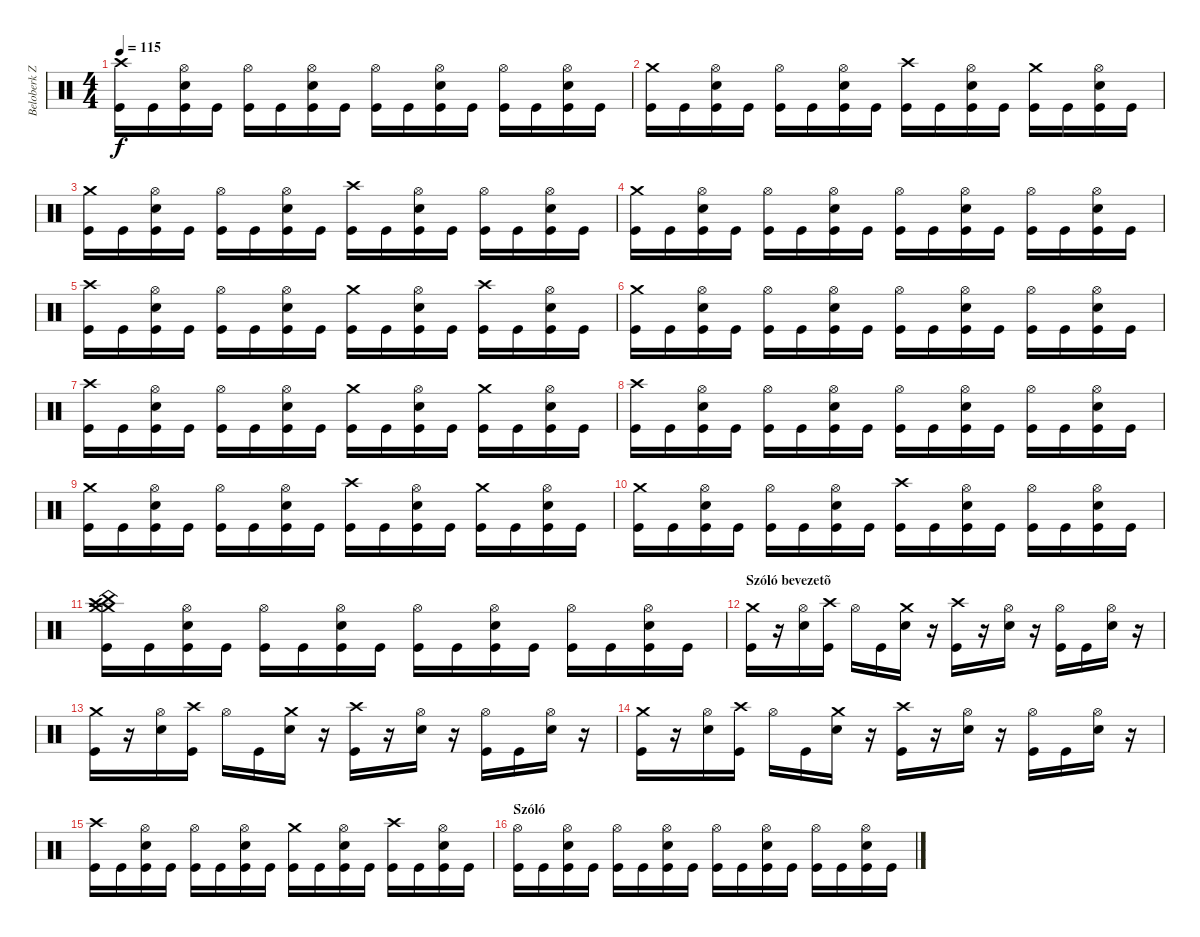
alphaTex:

\track ("Beloberk Zsolt /dob/" "Beloberk Z") {instrument percussion}
\staff {score}
\articulation defaults
\ts (4 4)
\tempo 115
\clef neutral
\ks c
("Crash high (hit)" "Kick (hit)").16{dy f} "Kick (hit)".16 ("Hi-Hat (open)" "Electric Snare (hit)" "Kick (hit)").16 "Kick (hit)".16 ("Hi-Hat (open)" "Kick (hit)").16 "Kick (hit)".16 ("Hi-Hat (open)" "Electric Snare (hit)" "Kick (hit)").16 "Kick (hit)".16 ("Hi-Hat (open)" "Kick (hit)").16 "Kick (hit)".16 ("Hi-Hat (open)" "Electric Snare (hit)" "Kick (hit)").16 "Kick (hit)".16 ("Hi-Hat (open)" "Kick (hit)").16 "Kick (hit)".16 ("Hi-Hat (open)" "Electric Snare (hit)" "Kick (hit)").16 "Kick (hit)".16 |
("Crash medium (hit)" "Kick (hit)").16 "Kick (hit)".16 ("Hi-Hat (open)" "Electric Snare (hit)" "Kick (hit)").16 "Kick (hit)".16 ("Hi-Hat (open)" "Kick (hit)").16 "Kick (hit)".16 ("Hi-Hat (open)" "Electric Snare (hit)" "Kick (hit)").16 "Kick (hit)".16 ("Crash high (hit)" "Kick (hit)").16 "Kick (hit)".16 ("Hi-Hat (open)" "Electric Snare (hit)" "Kick (hit)").16 "Kick (hit)".16 ("Crash medium (hit)" "Kick (hit)").16 "Kick (hit)".16 ("Hi-Hat (open)" "Electric Snare (hit)" "Kick (hit)").16 "Kick (hit)".16 |
("Crash medium (hit)" "Kick (hit)").16 "Kick (hit)".16 ("Hi-Hat (open)" "Electric Snare (hit)" "Kick (hit)").16 "Kick (hit)".16 ("Hi-Hat (open)" "Kick (hit)").16 "Kick (hit)".16 ("Hi-Hat (open)" "Electric Snare (hit)" "Kick (hit)").16 "Kick (hit)".16 ("Crash high (hit)" "Kick (hit)").16 "Kick (hit)".16 ("Hi-Hat (open)" "Electric Snare (hit)" "Kick (hit)").16 "Kick (hit)".16 ("Hi-Hat (open)" "Kick (hit)").16 "Kick (hit)".16 ("Hi-Hat (open)" "Electric Snare (hit)" "Kick (hit)").16 "Kick (hit)".16 |
("Crash medium (hit)" "Kick (hit)").16 "Kick (hit)".16 ("Hi-Hat (open)" "Electric Snare (hit)" "Kick (hit)").16 "Kick (hit)".16 ("Hi-Hat (open)" "Kick (hit)").16 "Kick (hit)".16 ("Hi-Hat (open)" "Electric Snare (hit)" "Kick (hit)").16 "Kick (hit)".16 ("Hi-Hat (open)" "Kick (hit)").16 "Kick (hit)".16 ("Hi-Hat (open)" "Electric Snare (hit)" "Kick (hit)").16 "Kick (hit)".16 ("Hi-Hat (open)" "Kick (hit)").16 "Kick (hit)".16 ("Hi-Hat (open)" "Electric Snare (hit)" "Kick (hit)").16 "Kick (hit)".16 |
("Crash high (hit)" "Kick (hit)").16 "Kick (hit)".16 ("Hi-Hat (open)" "Electric Snare (hit)" "Kick (hit)").16 "Kick (hit)".16 ("Hi-Hat (open)" "Kick (hit)").16 "Kick (hit)".16 ("Hi-Hat (open)" "Electric Snare (hit)" "Kick (hit)").16 "Kick (hit)".16 ("Crash medium (hit)" "Kick (hit)").16 "Kick (hit)".16 ("Hi-Hat (open)" "Electric Snare (hit)" "Kick (hit)").16 "Kick (hit)".16 ("Crash high (hit)" "Kick (hit)").16 "Kick (hit)".16 ("Hi-Hat (open)" "Electric Snare (hit)" "Kick (hit)").16 "Kick (hit)".16 |
("Crash medium (hit)" "Kick (hit)").16 "Kick (hit)".16 ("Hi-Hat (open)" "Electric Snare (hit)" "Kick (hit)").16 "Kick (hit)".16 ("Hi-Hat (open)" "Kick (hit)").16 "Kick (hit)".16 ("Hi-Hat (open)" "Electric Snare (hit)" "Kick (hit)").16 "Kick (hit)".16 ("Hi-Hat (open)" "Kick (hit)").16 "Kick (hit)".16 ("Hi-Hat (open)" "Electric Snare (hit)" "Kick (hit)").16 "Kick (hit)".16 ("Hi-Hat (open)" "Kick (hit)").16 "Kick (hit)".16 ("Hi-Hat (open)" "Electric Snare (hit)" "Kick (hit)").16 "Kick (hit)".16 |
("Crash high (hit)" "Kick (hit)").16 "Kick (hit)".16 ("Hi-Hat (open)" "Electric Snare (hit)" "Kick (hit)").16 "Kick (hit)".16 ("Hi-Hat (open)" "Kick (hit)").16 "Kick (hit)".16 ("Hi-Hat (open)" "Electric Snare (hit)" "Kick (hit)").16 "Kick (hit)".16 ("Crash medium (hit)" "Kick (hit)").16 "Kick (hit)".16 ("Hi-Hat (open)" "Electric Snare (hit)" "Kick (hit)").16 "Kick (hit)".16 ("Crash medium (hit)" "Kick (hit)").16 "Kick (hit)".16 ("Hi-Hat (open)" "Electric Snare (hit)" "Kick (hit)").16 "Kick (hit)".16 |
("Crash high (hit)" "Kick (hit)").16 "Kick (hit)".16 ("Hi-Hat (open)" "Electric Snare (hit)" "Kick (hit)").16 "Kick (hit)".16 ("Hi-Hat (open)" "Kick (hit)").16 "Kick (hit)".16 ("Hi-Hat (open)" "Electric Snare (hit)" "Kick (hit)").16 "Kick (hit)".16 ("Hi-Hat (open)" "Kick (hit)").16 "Kick (hit)".16 ("Hi-Hat (open)" "Electric Snare (hit)" "Kick (hit)").16 "Kick (hit)".16 ("Hi-Hat (open)" "Kick (hit)").16 "Kick (hit)".16 ("Hi-Hat (open)" "Electric Snare (hit)" "Kick (hit)").16 "Kick (hit)".16 |
("Crash medium (hit)" "Kick (hit)").16 "Kick (hit)".16 ("Hi-Hat (open)" "Electric Snare (hit)" "Kick (hit)").16 "Kick (hit)".16 ("Hi-Hat (open)" "Kick (hit)").16 "Kick (hit)".16 ("Hi-Hat (open)" "Electric Snare (hit)" "Kick (hit)").16 "Kick (hit)".16 ("Crash high (hit)" "Kick (hit)").16 "Kick (hit)".16 ("Hi-Hat (open)" "Electric Snare (hit)" "Kick (hit)").16 "Kick (hit)".16 ("Crash medium (hit)" "Kick (hit)").16 "Kick (hit)".16 ("Hi-Hat (open)" "Electric Snare (hit)" "Kick (hit)").16 "Kick (hit)".16 |
("Crash medium (hit)" "Kick (hit)").16 "Kick (hit)".16 ("Hi-Hat (open)" "Electric Snare (hit)" "Kick (hit)").16 "Kick (hit)".16 ("Hi-Hat (open)" "Kick (hit)").16 "Kick (hit)".16 ("Hi-Hat (open)" "Electric Snare (hit)" "Kick (hit)").16 "Kick (hit)".16 ("Crash high (hit)" "Kick (hit)").16 "Kick (hit)".16 ("Hi-Hat (open)" "Electric Snare (hit)" "Kick (hit)").16 "Kick (hit)".16 ("Hi-Hat (open)" "Kick (hit)").16 "Kick (hit)".16 ("Hi-Hat (open)" "Electric Snare (hit)" "Kick (hit)").16 "Kick (hit)".16 |
("Crash medium (hit)" "Kick (hit)" "China (hit)" "Crash high (hit)" "Crash medium (hit)").16 "Kick (hit)".16 ("Hi-Hat (open)" "Electric Snare (hit)" "Kick (hit)").16 "Kick (hit)".16 ("Hi-Hat (open)" "Kick (hit)").16 "Kick (hit)".16 ("Hi-Hat (open)" "Electric Snare (hit)" "Kick (hit)").16 "Kick (hit)".16 ("Hi-Hat (open)" "Kick (hit)").16 "Kick (hit)".16 ("Hi-Hat (open)" "Electric Snare (hit)" "Kick (hit)").16 "Kick (hit)".16 ("Hi-Hat (open)" "Kick (hit)").16 "Kick (hit)".16 ("Hi-Hat (open)" "Electric Snare (hit)" "Kick (hit)").16 "Kick (hit)".16 |
\section ("" "Szóló bevezetõ")
("Crash medium (hit)" "Kick (hit)").16 r.16 ("Hi-Hat (open)" "Electric Snare (hit)").16 ("Crash high (hit)" "Kick (hit)").16 "Hi-Hat (open)".16 "Kick (hit)".16 ("Crash medium (hit)" "Electric Snare (hit)").16 r.16 ("Crash high (hit)" "Kick (hit)").16 r.16 ("Hi-Hat (open)" "Electric Snare (hit)").16 r.16 ("Hi-Hat (open)" "Kick (hit)").16 "Kick (hit)".16 ("Hi-Hat (open)" "Electric Snare (hit)").16 r.16 |
("Crash medium (hit)" "Kick (hit)").16 r.16 ("Hi-Hat (open)" "Electric Snare (hit)").16 ("Crash high (hit)" "Kick (hit)").16 "Hi-Hat (open)".16 "Kick (hit)".16 ("Crash medium (hit)" "Electric Snare (hit)").16 r.16 ("Crash high (hit)" "Kick (hit)").16 r.16 ("Hi-Hat (open)" "Electric Snare (hit)").16 r.16 ("Hi-Hat (open)" "Kick (hit)").16 "Kick (hit)".16 ("Hi-Hat (open)" "Electric Snare (hit)").16 r.16 |
("Crash medium (hit)" "Kick (hit)").16 r.16 ("Hi-Hat (open)" "Electric Snare (hit)").16 ("Crash high (hit)" "Kick (hit)").16 "Hi-Hat (open)".16 "Kick (hit)".16 ("Crash medium (hit)" "Electric Snare (hit)").16 r.16 ("Crash high (hit)" "Kick (hit)").16 r.16 ("Hi-Hat (open)" "Electric Snare (hit)").16 r.16 ("Hi-Hat (open)" "Kick (hit)").16 "Kick (hit)".16 ("Hi-Hat (open)" "Electric Snare (hit)").16 r.16 |
("Crash high (hit)" "Kick (hit)").16 "Kick (hit)".16 ("Hi-Hat (open)" "Electric Snare (hit)" "Kick (hit)").16 "Kick (hit)".16 ("Hi-Hat (open)" "Kick (hit)").16 "Kick (hit)".16 ("Hi-Hat (open)" "Electric Snare (hit)" "Kick (hit)").16 "Kick (hit)".16 ("Crash medium (hit)" "Kick (hit)").16 "Kick (hit)".16 ("Hi-Hat (open)" "Electric Snare (hit)" "Kick (hit)").16 "Kick (hit)".16 ("Crash high (hit)" "Kick (hit)").16 "Kick (hit)".16 ("Hi-Hat (open)" "Electric Snare (hit)" "Kick (hit)").16 "Kick (hit)".16 |
\section ("" "Szóló")
("Hi-Hat (open)" "Kick (hit)").16 "Kick (hit)".16 ("Hi-Hat (open)" "Electric Snare (hit)" "Kick (hit)").16 "Kick (hit)".16 ("Hi-Hat (open)" "Kick (hit)").16 "Kick (hit)".16 ("Hi-Hat (open)" "Electric Snare (hit)" "Kick (hit)").16 "Kick (hit)".16 ("Hi-Hat (open)" "Kick (hit)").16 "Kick (hit)".16 ("Hi-Hat (open)" "Electric Snare (hit)" "Kick (hit)").16 "Kick (hit)".16 ("Hi-Hat (open)" "Kick (hit)").16 "Kick (hit)".16 ("Hi-Hat (open)" "Electric Snare (hit)" "Kick (hit)").16 "Kick (hit)".16
